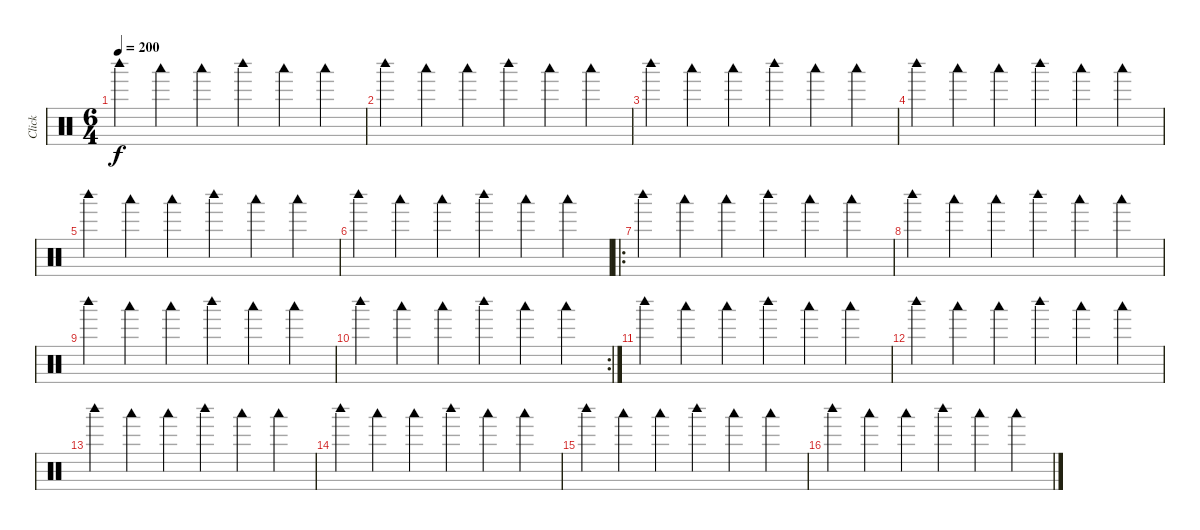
\track ("Click" "Click") {mute instrument percussion}
\staff {score}
\articulation defaults
\ts (6 4)
\tempo 200
\clef neutral
\ks c "Woodblock high (hit)".4{dy f} "Woodblock low (hit)".4 "Woodblock low (hit)".4 "Woodblock high (hit)".4 "Woodblock low (hit)".4 "Woodblock low (hit)".4
|
"Woodblock high (hit)".4 "Woodblock low (hit)".4 "Woodblock low (hit)".4 "Woodblock high (hit)".4 "Woodblock low (hit)".4 "Woodblock low (hit)".4 |
"Woodblock high (hit)".4 "Woodblock low (hit)".4 "Woodblock low (hit)".4 "Woodblock high (hit)".4 "Woodblock low (hit)".4 "Woodblock low (hit)".4 |
"Woodblock high (hit)".4 "Woodblock low (hit)".4 "Woodblock low (hit)".4 "Woodblock high (hit)".4 "Woodblock low (hit)".4 "Woodblock low (hit)".4 |
"Woodblock high (hit)".4 "Woodblock low (hit)".4 "Woodblock low (hit)".4 "Woodblock high (hit)".4 "Woodblock low (hit)".4 "Woodblock low (hit)".4 |
"Woodblock high (hit)".4 "Woodblock low (hit)".4 "Woodblock low (hit)".4 "Woodblock high (hit)".4 "Woodblock low (hit)".4 "Woodblock low (hit)".4 |
\ro "Woodblock high (hit)".4 "Woodblock low (hit)".4 "Woodblock low (hit)".4 "Woodblock high (hit)".4 "Woodblock low (hit)".4 "Woodblock low (hit)".4
|
"Woodblock high (hit)".4 "Woodblock low (hit)".4 "Woodblock low (hit)".4 "Woodblock high (hit)".4 "Woodblock low (hit)".4 "Woodblock low (hit)".4 |
"Woodblock high (hit)".4 "Woodblock low (hit)".4 "Woodblock low (hit)".4 "Woodblock high (hit)".4 "Woodblock low (hit)".4 "Woodblock low (hit)".4 |
\rc 2 "Woodblock high (hit)".4 "Woodblock low (hit)".4 "Woodblock low (hit)".4 "Woodblock high (hit)".4 "Woodblock low (hit)".4 "Woodblock low (hit)".4
|
"Woodblock high (hit)".4 "Woodblock low (hit)".4 "Woodblock low (hit)".4 "Woodblock high (hit)".4 "Woodblock low (hit)".4 "Woodblock low (hit)".4 |
"Woodblock high (hit)".4 "Woodblock low (hit)".4 "Woodblock low (hit)".4 "Woodblock high (hit)".4 "Woodblock low (hit)".4 "Woodblock low (hit)".4 |
"Woodblock high (hit)".4 "Woodblock low (hit)".4 "Woodblock low (hit)".4 "Woodblock high (hit)".4 "Woodblock low (hit)".4 "Woodblock low (hit)".4 |
"Woodblock high (hit)".4 "Woodblock low (hit)".4 "Woodblock low (hit)".4 "Woodblock high (hit)".4 "Woodblock low (hit)".4 "Woodblock low (hit)".4 |
"Woodblock high (hit)".4 "Woodblock low (hit)".4 "Woodblock low (hit)".4 "Woodblock high (hit)".4 "Woodblock low (hit)".4 "Woodblock low (hit)".4 |
"Woodblock high (hit)".4 "Woodblock low (hit)".4 "Woodblock low (hit)".4 "Woodblock high (hit)".4 "Woodblock low (hit)".4 "Woodblock low (hit)".4
